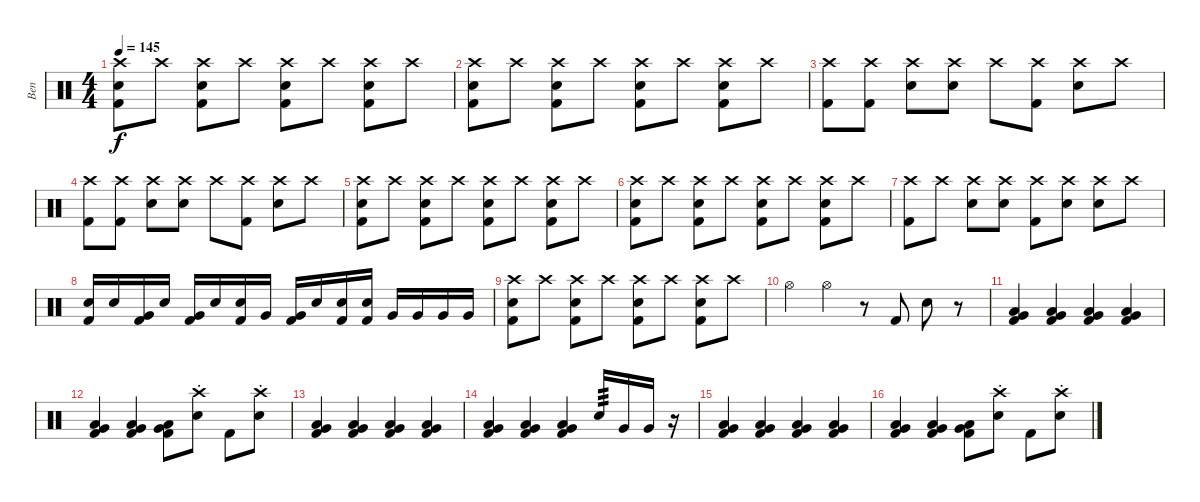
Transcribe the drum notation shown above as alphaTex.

\track ("Ben" "Ben") {instrument percussion}
\staff {score}
\articulation defaults
\ts (4 4)
\tempo 145
\clef neutral
\ks c
("Crash high (hit)" "Electric Snare (hit)" "Kick (hit) 2").8{dy f} "Crash high (hit)".8 ("Crash high (hit)" "Electric Snare (hit)" "Kick (hit) 2").8 "Crash high (hit)".8 ("Crash high (hit)" "Electric Snare (hit)" "Kick (hit) 2").8 "Crash high (hit)".8 ("Crash high (hit)" "Electric Snare (hit)" "Kick (hit) 2").8 "Crash high (hit)".8 |
("Crash high (hit)" "Electric Snare (hit)" "Kick (hit) 2").8 "Crash high (hit)".8 ("Crash high (hit)" "Electric Snare (hit)" "Kick (hit) 2").8 "Crash high (hit)".8 ("Crash high (hit)" "Electric Snare (hit)" "Kick (hit) 2").8 "Crash high (hit)".8 ("Crash high (hit)" "Electric Snare (hit)" "Kick (hit) 2").8 "Crash high (hit)".8 |
("Crash high (hit)" "Kick (hit) 2").8 ("Crash high (hit)" "Kick (hit) 2").8 ("Crash high (hit)" "Electric Snare (hit)").8 ("Crash high (hit)" "Electric Snare (hit)").8 "Crash high (hit)".8 ("Crash high (hit)" "Kick (hit) 2").8 ("Crash high (hit)" "Electric Snare (hit)").8 "Crash high (hit)".8 |
("Crash high (hit)" "Kick (hit) 2").8 ("Crash high (hit)" "Kick (hit) 2").8 ("Crash high (hit)" "Electric Snare (hit)").8 ("Crash high (hit)" "Electric Snare (hit)").8 "Crash high (hit)".8 ("Crash high (hit)" "Kick (hit) 2").8 ("Crash high (hit)" "Electric Snare (hit)").8 "Crash high (hit)".8 |
("Crash high (hit)" "Electric Snare (hit)" "Kick (hit) 2").8 "Crash high (hit)".8 ("Crash high (hit)" "Electric Snare (hit)" "Kick (hit) 2").8 "Crash high (hit)".8 ("Crash high (hit)" "Electric Snare (hit)" "Kick (hit) 2").8 "Crash high (hit)".8 ("Crash high (hit)" "Electric Snare (hit)" "Kick (hit) 2").8 "Crash high (hit)".8 |
("Crash high (hit)" "Electric Snare (hit)" "Kick (hit) 2").8 "Crash high (hit)".8 ("Crash high (hit)" "Electric Snare (hit)" "Kick (hit) 2").8 "Crash high (hit)".8 ("Crash high (hit)" "Electric Snare (hit)" "Kick (hit) 2").8 "Crash high (hit)".8 ("Crash high (hit)" "Electric Snare (hit)" "Kick (hit) 2").8 "Crash high (hit)".8 |
("Crash high (hit)" "Kick (hit) 2").8 "Crash high (hit)".8 ("Crash high (hit)" "Electric Snare (hit)").8 ("Crash high (hit)" "Electric Snare (hit)").8 ("Crash high (hit)" "Kick (hit) 2").8 ("Crash high (hit)" "Electric Snare (hit)").8 ("Crash high (hit)" "Electric Snare (hit)").8 "Crash high (hit)".8 |
("Electric Snare (hit)" "Kick (hit) 2").16 "Electric Snare (hit)".16 ("Very Low Tom (hit)" "Kick (hit) 2").16 "Electric Snare (hit)".16 ("Very Low Tom (hit)" "Kick (hit) 2").16 "Electric Snare (hit)".16 ("Electric Snare (hit)" "Kick (hit) 2").16 "Very Low Tom (hit)".16 ("Very Low Tom (hit)" "Kick (hit) 2").16 "Electric Snare (hit)".16 ("Electric Snare (hit)" "Kick (hit) 2").16 ("Electric Snare (hit)" "Kick (hit) 2").16 "Very Low Tom (hit)".16 "Very Low Tom (hit)".16 "Very Low Tom (hit)".16 "Very Low Tom (hit)".16 |
("Crash high (hit)" "Electric Snare (hit)" "Kick (hit) 2").8 "Crash high (hit)".8 ("Crash high (hit)" "Electric Snare (hit)" "Kick (hit) 2").8 "Crash high (hit)".8 ("Crash high (hit)" "Electric Snare (hit)" "Kick (hit) 2").8 "Crash high (hit)".8 ("Crash high (hit)" "Electric Snare (hit)" "Kick (hit) 2").8 "Crash high (hit)".8 |
"Hi-Hat (open)".4 "Hi-Hat (open)".4 r.8 "Kick (hit) 2".8 "Electric Snare (hit)".8 r.8 |
("Very Low Tom (hit)" "Low Floor Tom (hit)" "Kick (hit) 2").4 ("Very Low Tom (hit)" "Low Floor Tom (hit)" "Kick (hit) 2").4 ("Very Low Tom (hit)" "Low Floor Tom (hit)" "Kick (hit) 2").4 ("Very Low Tom (hit)" "Low Floor Tom (hit)" "Kick (hit) 2").4 |
("Very Low Tom (hit)" "Low Floor Tom (hit)" "Kick (hit) 2").4 ("Very Low Tom (hit)" "Low Floor Tom (hit)" "Kick (hit) 2").4 ("Very Low Tom (hit)" "Low Floor Tom (hit)" "Kick (hit) 2").8 ("Crash high (hit)"{st} "Electric Snare (hit)"{st}).8 "Kick (hit) 2".8 ("Crash high (hit)"{st} "Electric Snare (hit)"{st}).8 |
("Very Low Tom (hit)" "Low Floor Tom (hit)" "Kick (hit) 2").4 ("Very Low Tom (hit)" "Low Floor Tom (hit)" "Kick (hit) 2").4 ("Very Low Tom (hit)" "Low Floor Tom (hit)" "Kick (hit) 2").4 ("Very Low Tom (hit)" "Low Floor Tom (hit)" "Kick (hit) 2").4 |
("Very Low Tom (hit)" "Low Floor Tom (hit)" "Kick (hit) 2").4 ("Very Low Tom (hit)" "Low Floor Tom (hit)" "Kick (hit) 2").4 ("Very Low Tom (hit)" "Low Floor Tom (hit)" "Kick (hit) 2").4 "Electric Snare (hit)".16{tp 3} "Very Low Tom (hit)".16 "Very Low Tom (hit)".16 r.16 |
("Very Low Tom (hit)" "Low Floor Tom (hit)" "Kick (hit) 2").4 ("Very Low Tom (hit)" "Low Floor Tom (hit)" "Kick (hit) 2").4 ("Very Low Tom (hit)" "Low Floor Tom (hit)" "Kick (hit) 2").4 ("Very Low Tom (hit)" "Low Floor Tom (hit)" "Kick (hit) 2").4 |
("Very Low Tom (hit)" "Low Floor Tom (hit)" "Kick (hit) 2").4 ("Very Low Tom (hit)" "Low Floor Tom (hit)" "Kick (hit) 2").4 ("Very Low Tom (hit)" "Low Floor Tom (hit)" "Kick (hit) 2").8 ("Crash high (hit)"{st} "Electric Snare (hit)"{st}).8 "Kick (hit) 2".8 ("Crash high (hit)"{st} "Electric Snare (hit)"{st}).8
